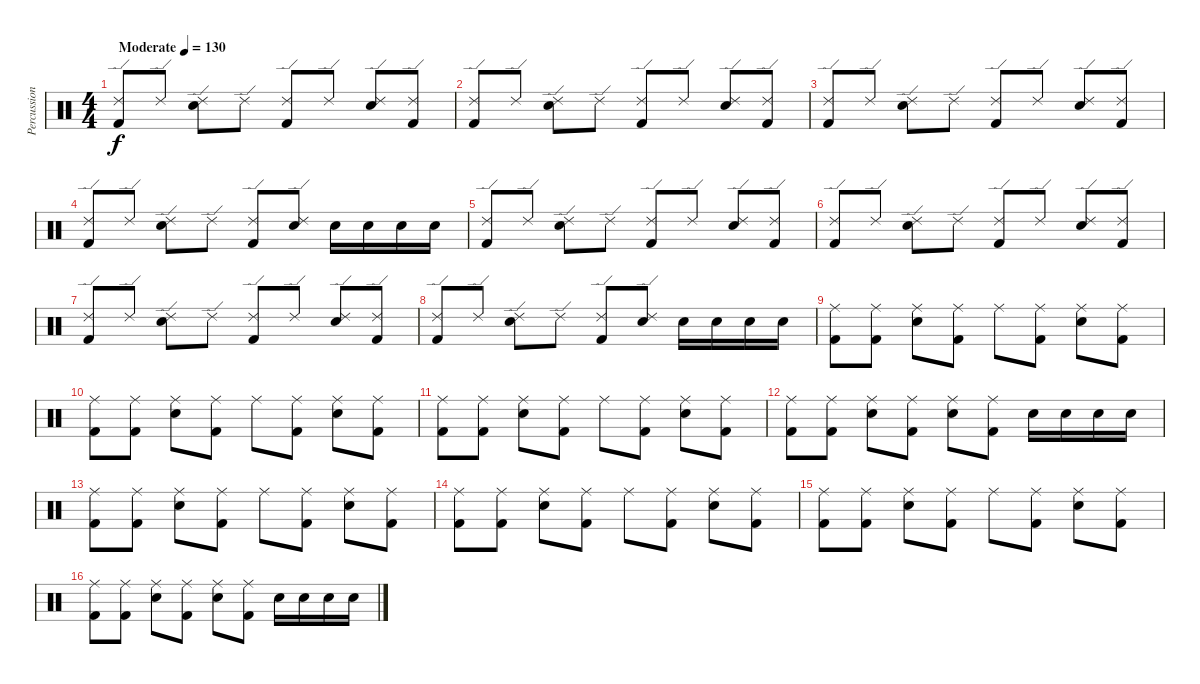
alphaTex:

\track ("Percussion" "Percussion") {instrument percussion}
\staff {score}
\articulation defaults
\ts (4 4)
\tempo (130 "Moderate")
\clef neutral
\ks c
("Kick (hit) 2" "Ride (edge) 2").8{dy f} "Ride (edge) 2".8 ("Snare (hit) 2" "Ride (edge) 2").8 "Ride (edge) 2".8 ("Kick (hit) 2" "Ride (edge) 2").8 "Ride (edge) 2".8 ("Snare (hit) 2" "Ride (edge) 2").8 ("Kick (hit) 2" "Ride (edge) 2").8 |
("Kick (hit) 2" "Ride (edge) 2").8 "Ride (edge) 2".8 ("Snare (hit) 2" "Ride (edge) 2").8 "Ride (edge) 2".8 ("Kick (hit) 2" "Ride (edge) 2").8 "Ride (edge) 2".8 ("Snare (hit) 2" "Ride (edge) 2").8 ("Kick (hit) 2" "Ride (edge) 2").8 |
("Kick (hit) 2" "Ride (edge) 2").8 "Ride (edge) 2".8 ("Snare (hit) 2" "Ride (edge) 2").8 "Ride (edge) 2".8 ("Kick (hit) 2" "Ride (edge) 2").8 "Ride (edge) 2".8 ("Snare (hit) 2" "Ride (edge) 2").8 ("Kick (hit) 2" "Ride (edge) 2").8 |
("Kick (hit) 2" "Ride (edge) 2").8 "Ride (edge) 2".8 ("Snare (hit) 2" "Ride (edge) 2").8 "Ride (edge) 2".8 ("Kick (hit) 2" "Ride (edge) 2").8 ("Snare (hit) 2" "Ride (edge) 2").8 "Snare (hit) 2".16 "Snare (hit) 2".16 "Snare (hit) 2".16 "Snare (hit) 2".16 |
("Kick (hit) 2" "Ride (edge) 2").8 "Ride (edge) 2".8 ("Snare (hit) 2" "Ride (edge) 2").8 "Ride (edge) 2".8 ("Kick (hit) 2" "Ride (edge) 2").8 "Ride (edge) 2".8 ("Snare (hit) 2" "Ride (edge) 2").8 ("Kick (hit) 2" "Ride (edge) 2").8 |
("Kick (hit) 2" "Ride (edge) 2").8 "Ride (edge) 2".8 ("Snare (hit) 2" "Ride (edge) 2").8 "Ride (edge) 2".8 ("Kick (hit) 2" "Ride (edge) 2").8 "Ride (edge) 2".8 ("Snare (hit) 2" "Ride (edge) 2").8 ("Kick (hit) 2" "Ride (edge) 2").8 |
("Kick (hit) 2" "Ride (edge) 2").8 "Ride (edge) 2".8 ("Snare (hit) 2" "Ride (edge) 2").8 "Ride (edge) 2".8 ("Kick (hit) 2" "Ride (edge) 2").8 "Ride (edge) 2".8 ("Snare (hit) 2" "Ride (edge) 2").8 ("Kick (hit) 2" "Ride (edge) 2").8 |
("Kick (hit) 2" "Ride (edge) 2").8 "Ride (edge) 2".8 ("Snare (hit) 2" "Ride (edge) 2").8 "Ride (edge) 2".8 ("Kick (hit) 2" "Ride (edge) 2").8 ("Snare (hit) 2" "Ride (edge) 2").8 "Snare (hit) 2".16 "Snare (hit) 2".16 "Snare (hit) 2".16 "Snare (hit) 2".16 |
("Kick (hit) 2" "Ride (middle)").8 ("Kick (hit) 2" "Ride (middle)").8 ("Snare (hit) 2" "Ride (middle)").8 ("Kick (hit) 2" "Ride (middle)").8 "Ride (middle)".8 ("Kick (hit) 2" "Ride (middle)").8 ("Snare (hit) 2" "Ride (middle)").8 ("Kick (hit) 2" "Ride (middle)").8 |
("Kick (hit) 2" "Ride (middle)").8 ("Kick (hit) 2" "Ride (middle)").8 ("Snare (hit) 2" "Ride (middle)").8 ("Kick (hit) 2" "Ride (middle)").8 "Ride (middle)".8 ("Kick (hit) 2" "Ride (middle)").8 ("Snare (hit) 2" "Ride (middle)").8 ("Kick (hit) 2" "Ride (middle)").8 |
("Kick (hit) 2" "Ride (middle)").8 ("Kick (hit) 2" "Ride (middle)").8 ("Snare (hit) 2" "Ride (middle)").8 ("Kick (hit) 2" "Ride (middle)").8 "Ride (middle)".8 ("Kick (hit) 2" "Ride (middle)").8 ("Snare (hit) 2" "Ride (middle)").8 ("Kick (hit) 2" "Ride (middle)").8 |
("Kick (hit) 2" "Ride (middle)").8 ("Kick (hit) 2" "Ride (middle)").8 ("Snare (hit) 2" "Ride (middle)").8 ("Kick (hit) 2" "Ride (middle)").8 ("Snare (hit) 2" "Ride (middle)").8 ("Kick (hit) 2" "Ride (middle)").8 "Snare (hit) 2".16 "Snare (hit) 2".16 "Snare (hit) 2".16 "Snare (hit) 2".16 |
("Kick (hit) 2" "Ride (middle)").8 ("Kick (hit) 2" "Ride (middle)").8 ("Snare (hit) 2" "Ride (middle)").8 ("Kick (hit) 2" "Ride (middle)").8 "Ride (middle)".8 ("Kick (hit) 2" "Ride (middle)").8 ("Snare (hit) 2" "Ride (middle)").8 ("Kick (hit) 2" "Ride (middle)").8 |
("Kick (hit) 2" "Ride (middle)").8 ("Kick (hit) 2" "Ride (middle)").8 ("Snare (hit) 2" "Ride (middle)").8 ("Kick (hit) 2" "Ride (middle)").8 "Ride (middle)".8 ("Kick (hit) 2" "Ride (middle)").8 ("Snare (hit) 2" "Ride (middle)").8 ("Kick (hit) 2" "Ride (middle)").8 |
("Kick (hit) 2" "Ride (middle)").8 ("Kick (hit) 2" "Ride (middle)").8 ("Snare (hit) 2" "Ride (middle)").8 ("Kick (hit) 2" "Ride (middle)").8 "Ride (middle)".8 ("Kick (hit) 2" "Ride (middle)").8 ("Snare (hit) 2" "Ride (middle)").8 ("Kick (hit) 2" "Ride (middle)").8 |
("Kick (hit) 2" "Ride (middle)").8 ("Kick (hit) 2" "Ride (middle)").8 ("Snare (hit) 2" "Ride (middle)").8 ("Kick (hit) 2" "Ride (middle)").8 ("Snare (hit) 2" "Ride (middle)").8 ("Kick (hit) 2" "Ride (middle)").8 "Snare (hit) 2".16 "Snare (hit) 2".16 "Snare (hit) 2".16 "Snare (hit) 2".16
